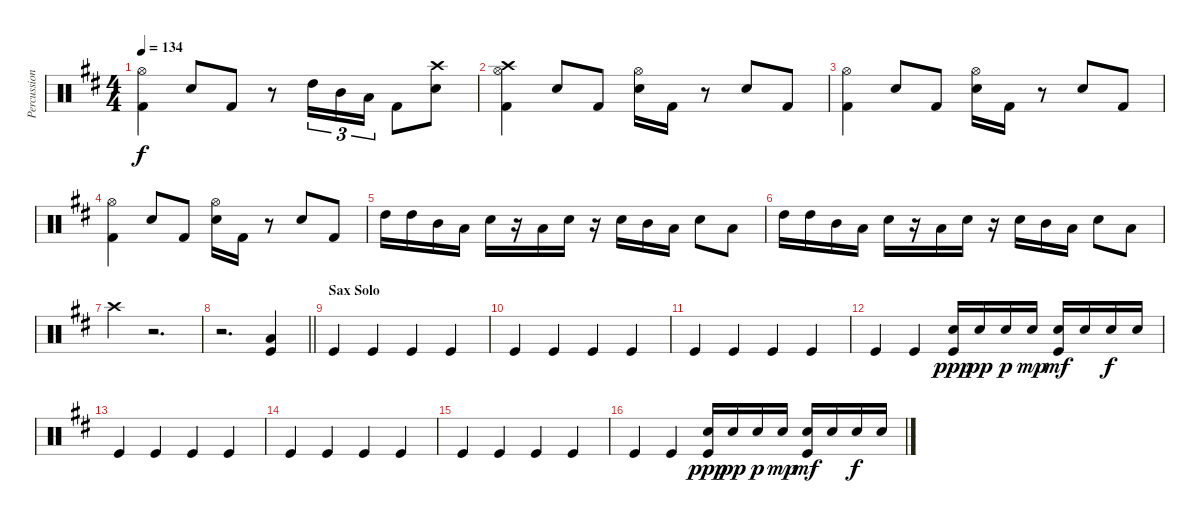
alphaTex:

\track ("Percussion" "Percussion") {instrument percussion}
\staff {score}
\articulation defaults
\ts (4 4)
\tempo 134
\clef neutral
\ks bminor
("Hi-Hat (open)" "Kick (hit) 2").4{dy f} "Snare (hit) 2".8 "Kick (hit) 2".8 r.8 "High Tom (hit)".16{tu (3 2)} "Mid Tom (hit)".16{tu (3 2)} "Low Tom (hit)".16{tu (3 2)} "Kick (hit) 2".8 ("Crash high (hit)" "Snare (hit) 2").8 |
("Crash high (hit)" "Hi-Hat (open)" "Kick (hit) 2").4 "Snare (hit) 2".8 "Kick (hit) 2".8 ("Hi-Hat (open)" "Snare (hit) 2").16 "Kick (hit) 2".16 r.8 "Snare (hit) 2".8 "Kick (hit) 2".8 |
("Hi-Hat (open)" "Kick (hit) 2").4 "Snare (hit) 2".8 "Kick (hit) 2".8 ("Hi-Hat (open)" "Snare (hit) 2").16 "Kick (hit) 2".16 r.8 "Snare (hit) 2".8 "Kick (hit) 2".8 |
("Hi-Hat (open)" "Kick (hit) 2").4 "Snare (hit) 2".8 "Kick (hit) 2".8 ("Hi-Hat (open)" "Snare (hit) 2").16 "Kick (hit) 2".16 r.8 "Snare (hit) 2".8 "Kick (hit) 2".8 |
"High Tom (hit)".16 "High Tom (hit)".16 "Mid Tom (hit)".16 "Low Tom (hit)".16 "Snare (hit) 2".16 r.16 "Low Tom (hit)".16 "Snare (hit) 2".16 r.16 "Snare (hit) 2".16 "Mid Tom (hit)".16 "Low Tom (hit)".16 "Snare (hit) 2".8 "Low Tom (hit)".8 |
"High Tom (hit)".16 "High Tom (hit)".16 "Mid Tom (hit)".16 "Low Tom (hit)".16 "Snare (hit) 2".16 r.16 "Low Tom (hit)".16 "Snare (hit) 2".16 r.16 "Snare (hit) 2".16 "Mid Tom (hit)".16 "Low Tom (hit)".16 "Snare (hit) 2".8 "Low Tom (hit)".8 |
"Crash high (hit)".4 r.2{d} |
\barLineRight lightlight
r.2{d} ("Low Tom (hit)" "Kick (hit)").4 |
\section ("" "Sax Solo")
"Kick (hit)".4 "Kick (hit)".4 "Kick (hit)".4 "Kick (hit)".4 |
"Kick (hit)".4 "Kick (hit)".4 "Kick (hit)".4 "Kick (hit)".4 |
"Kick (hit)".4 "Kick (hit)".4 "Kick (hit)".4 "Kick (hit)".4 |
"Kick (hit)".4 "Kick (hit)".4 ("Snare (hit) 2" "Kick (hit)").16{dy ppp} "Snare (hit) 2".16{dy pp} "Snare (hit) 2".16{dy p} "Snare (hit) 2".16{dy mp} ("Snare (hit) 2" "Kick (hit)").16{dy mf} "Snare (hit) 2".16 "Snare (hit) 2".16{dy f} "Snare (hit) 2".16 |
"Kick (hit)".4 "Kick (hit)".4 "Kick (hit)".4 "Kick (hit)".4 |
"Kick (hit)".4 "Kick (hit)".4 "Kick (hit)".4 "Kick (hit)".4 |
"Kick (hit)".4 "Kick (hit)".4 "Kick (hit)".4 "Kick (hit)".4 |
"Kick (hit)".4 "Kick (hit)".4 ("Snare (hit) 2" "Kick (hit)").16{dy ppp} "Snare (hit) 2".16{dy pp} "Snare (hit) 2".16{dy p} "Snare (hit) 2".16{dy mp} ("Snare (hit) 2" "Kick (hit)").16{dy mf} "Snare (hit) 2".16 "Snare (hit) 2".16{dy f} "Snare (hit) 2".16
